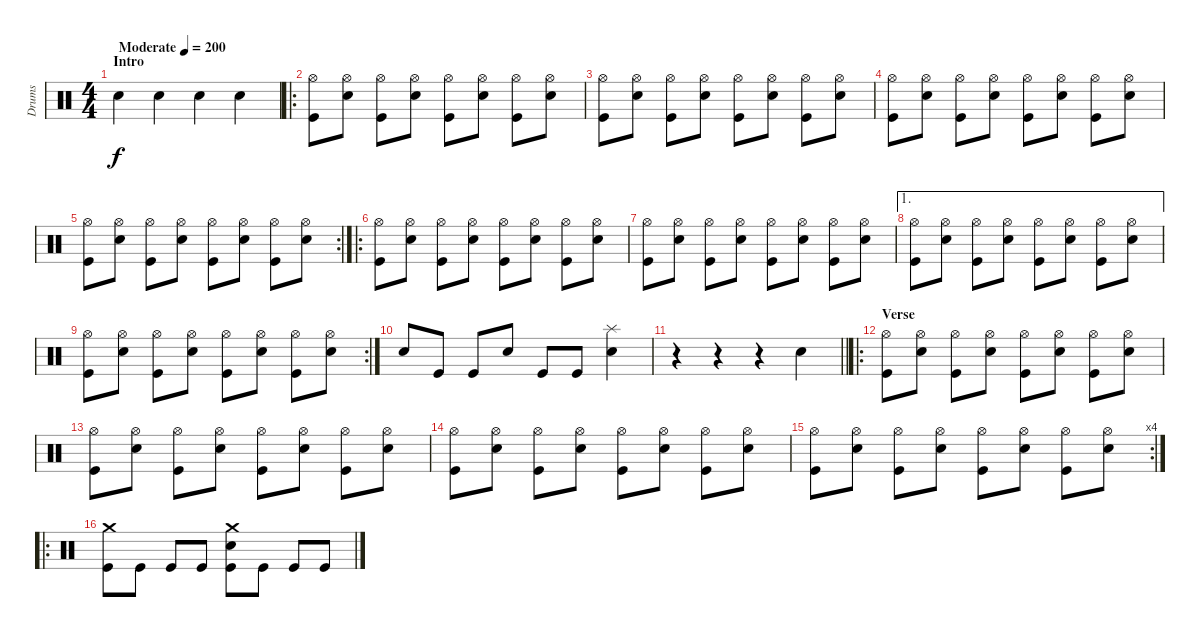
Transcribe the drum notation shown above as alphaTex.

\track ("Drums" "Drums") {instrument percussion}
\staff {score}
\articulation defaults
\ts (4 4)
\section ("" "Intro")
\tempo (200 "Moderate")
\clef neutral
\ks c "Snare (hit) 2".4{dy f} "Snare (hit) 2".4 "Snare (hit) 2".4 "Snare (hit) 2".4
|
\ro
("Hi-Hat (open)" "Kick (hit)").8 ("Hi-Hat (open)" "Snare (hit) 2").8 ("Hi-Hat (open)" "Kick (hit)").8 ("Hi-Hat (open)" "Snare (hit) 2").8 ("Hi-Hat (open)" "Kick (hit)").8 ("Hi-Hat (open)" "Snare (hit) 2").8 ("Hi-Hat (open)" "Kick (hit)").8 ("Hi-Hat (open)" "Snare (hit) 2").8 |
("Hi-Hat (open)" "Kick (hit)").8 ("Hi-Hat (open)" "Snare (hit) 2").8 ("Hi-Hat (open)" "Kick (hit)").8 ("Hi-Hat (open)" "Snare (hit) 2").8 ("Hi-Hat (open)" "Kick (hit)").8 ("Hi-Hat (open)" "Snare (hit) 2").8 ("Hi-Hat (open)" "Kick (hit)").8 ("Hi-Hat (open)" "Snare (hit) 2").8 |
("Hi-Hat (open)" "Kick (hit)").8 ("Hi-Hat (open)" "Snare (hit) 2").8 ("Hi-Hat (open)" "Kick (hit)").8 ("Hi-Hat (open)" "Snare (hit) 2").8 ("Hi-Hat (open)" "Kick (hit)").8 ("Hi-Hat (open)" "Snare (hit) 2").8 ("Hi-Hat (open)" "Kick (hit)").8 ("Hi-Hat (open)" "Snare (hit) 2").8 |
\rc 2
("Hi-Hat (open)" "Kick (hit)").8 ("Hi-Hat (open)" "Snare (hit) 2").8 ("Hi-Hat (open)" "Kick (hit)").8 ("Hi-Hat (open)" "Snare (hit) 2").8 ("Hi-Hat (open)" "Kick (hit)").8 ("Hi-Hat (open)" "Snare (hit) 2").8 ("Hi-Hat (open)" "Kick (hit)").8 ("Hi-Hat (open)" "Snare (hit) 2").8 |
\ro
("Hi-Hat (open)" "Kick (hit)").8 ("Hi-Hat (open)" "Snare (hit) 2").8 ("Hi-Hat (open)" "Kick (hit)").8 ("Hi-Hat (open)" "Snare (hit) 2").8 ("Hi-Hat (open)" "Kick (hit)").8 ("Hi-Hat (open)" "Snare (hit) 2").8 ("Hi-Hat (open)" "Kick (hit)").8 ("Hi-Hat (open)" "Snare (hit) 2").8 |
("Hi-Hat (open)" "Kick (hit)").8 ("Hi-Hat (open)" "Snare (hit) 2").8 ("Hi-Hat (open)" "Kick (hit)").8 ("Hi-Hat (open)" "Snare (hit) 2").8 ("Hi-Hat (open)" "Kick (hit)").8 ("Hi-Hat (open)" "Snare (hit) 2").8 ("Hi-Hat (open)" "Kick (hit)").8 ("Hi-Hat (open)" "Snare (hit) 2").8 |
\ae 1
("Hi-Hat (open)" "Kick (hit)").8 ("Hi-Hat (open)" "Snare (hit) 2").8 ("Hi-Hat (open)" "Kick (hit)").8 ("Hi-Hat (open)" "Snare (hit) 2").8 ("Hi-Hat (open)" "Kick (hit)").8 ("Hi-Hat (open)" "Snare (hit) 2").8 ("Hi-Hat (open)" "Kick (hit)").8 ("Hi-Hat (open)" "Snare (hit) 2").8 |
\rc 2
("Hi-Hat (open)" "Kick (hit)").8 ("Hi-Hat (open)" "Snare (hit) 2").8 ("Hi-Hat (open)" "Kick (hit)").8 ("Hi-Hat (open)" "Snare (hit) 2").8 ("Hi-Hat (open)" "Kick (hit)").8 ("Hi-Hat (open)" "Snare (hit) 2").8 ("Hi-Hat (open)" "Kick (hit)").8 ("Hi-Hat (open)" "Snare (hit) 2").8 |
"Snare (hit) 2".8 "Kick (hit)".8 "Kick (hit)".8 "Snare (hit) 2".8 "Kick (hit)".8 "Kick (hit)".8 ("Splash (hit)" "Snare (hit) 2").4 |
\barLineRight lightlight
r.4 r.4 r.4 "Snare (hit) 2".4 |
\ro
\section ("" "Verse")
("Hi-Hat (open)" "Kick (hit)").8 ("Hi-Hat (open)" "Snare (hit) 2").8 ("Hi-Hat (open)" "Kick (hit)").8 ("Hi-Hat (open)" "Snare (hit) 2").8 ("Hi-Hat (open)" "Kick (hit)").8 ("Hi-Hat (open)" "Snare (hit) 2").8 ("Hi-Hat (open)" "Kick (hit)").8 ("Hi-Hat (open)" "Snare (hit) 2").8 |
("Hi-Hat (open)" "Kick (hit)").8 ("Hi-Hat (open)" "Snare (hit) 2").8 ("Hi-Hat (open)" "Kick (hit)").8 ("Hi-Hat (open)" "Snare (hit) 2").8 ("Hi-Hat (open)" "Kick (hit)").8 ("Hi-Hat (open)" "Snare (hit) 2").8 ("Hi-Hat (open)" "Kick (hit)").8 ("Hi-Hat (open)" "Snare (hit) 2").8 |
("Hi-Hat (open)" "Kick (hit)").8 ("Hi-Hat (open)" "Snare (hit) 2").8 ("Hi-Hat (open)" "Kick (hit)").8 ("Hi-Hat (open)" "Snare (hit) 2").8 ("Hi-Hat (open)" "Kick (hit)").8 ("Hi-Hat (open)" "Snare (hit) 2").8 ("Hi-Hat (open)" "Kick (hit)").8 ("Hi-Hat (open)" "Snare (hit) 2").8 |
\rc 4
("Hi-Hat (open)" "Kick (hit)").8 ("Hi-Hat (open)" "Snare (hit) 2").8 ("Hi-Hat (open)" "Kick (hit)").8 ("Hi-Hat (open)" "Snare (hit) 2").8 ("Hi-Hat (open)" "Kick (hit)").8 ("Hi-Hat (open)" "Snare (hit) 2").8 ("Hi-Hat (open)" "Kick (hit)").8 ("Hi-Hat (open)" "Snare (hit) 2").8 |
\ro
("Crash medium (hit)" "Kick (hit)").8 "Kick (hit)".8 "Kick (hit)".8 "Kick (hit)".8 ("Crash medium (hit)" "Snare (hit) 2" "Kick (hit)").8 "Kick (hit)".8 "Kick (hit)".8 "Kick (hit)".8
